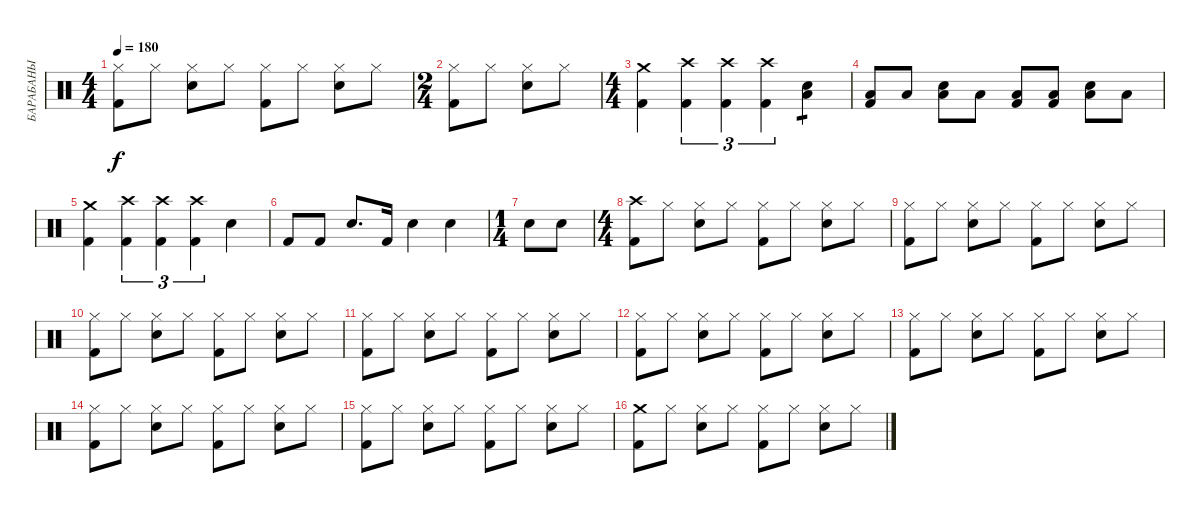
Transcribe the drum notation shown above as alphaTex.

\track ("БАРАБАНЫ" "БАРАБАНЫ") {instrument percussion}
\staff {score}
\articulation defaults
\ts (4 4)
\tempo 180
\clef neutral
\ks c
("Hi-Hat (closed)" "Kick (hit) 2").8{dy f} "Hi-Hat (closed)".8 ("Hi-Hat (closed)" "Electric Snare (hit)").8 "Hi-Hat (closed)".8 ("Hi-Hat (closed)" "Kick (hit) 2").8 "Hi-Hat (closed)".8 ("Hi-Hat (closed)" "Electric Snare (hit)").8 "Hi-Hat (closed)".8 |
\ts (2 4)
("Hi-Hat (closed)" "Kick (hit) 2").8 "Hi-Hat (closed)".8 ("Hi-Hat (closed)" "Electric Snare (hit)").8 "Hi-Hat (closed)".8 |
\ts (4 4)
("Kick (hit) 2" "Crash medium (hit)").4 ("Kick (hit) 2" "Crash high (hit)").4{tu (3 2)} ("Kick (hit) 2" "Crash high (hit)").4{tu (3 2)} ("Kick (hit) 2" "Crash high (hit)").4{tu (3 2)} ("Electric Snare (hit)" "Low Floor Tom (hit)").4{tp 1} |
("Kick (hit) 2" "Low Floor Tom (hit)").8 "Low Floor Tom (hit)".8 ("Electric Snare (hit)" "Low Floor Tom (hit)").8 "Low Floor Tom (hit)".8 ("Low Floor Tom (hit)" "Kick (hit) 2").8 ("Low Floor Tom (hit)" "Kick (hit) 2").8 ("Low Floor Tom (hit)" "Electric Snare (hit)").8 "Low Floor Tom (hit)".8 |
("Kick (hit) 2" "Crash medium (hit)").4 ("Kick (hit) 2" "Crash high (hit)").4{tu (3 2)} ("Kick (hit) 2" "Crash high (hit)").4{tu (3 2)} ("Kick (hit) 2" "Crash high (hit)").4{tu (3 2)} "Electric Snare (hit)".4 |
"Kick (hit) 2".8 "Kick (hit) 2".8 "Electric Snare (hit)".8{d} "Kick (hit) 2".16 "Electric Snare (hit)".4 "Electric Snare (hit)".4 |
\ts (1 4)
"Electric Snare (hit)".8 "Electric Snare (hit)".8 |
\ts (4 4)
("Crash high (hit)" "Kick (hit) 2").8 "Hi-Hat (closed)".8 ("Hi-Hat (closed)" "Electric Snare (hit)").8 "Hi-Hat (closed)".8 ("Hi-Hat (closed)" "Kick (hit) 2").8 "Hi-Hat (closed)".8 ("Hi-Hat (closed)" "Electric Snare (hit)").8 "Hi-Hat (closed)".8 |
("Hi-Hat (closed)" "Kick (hit) 2").8 "Hi-Hat (closed)".8 ("Hi-Hat (closed)" "Electric Snare (hit)").8 "Hi-Hat (closed)".8 ("Hi-Hat (closed)" "Kick (hit) 2").8 "Hi-Hat (closed)".8 ("Hi-Hat (closed)" "Electric Snare (hit)").8 "Hi-Hat (closed)".8 |
("Hi-Hat (closed)" "Kick (hit) 2").8 "Hi-Hat (closed)".8 ("Hi-Hat (closed)" "Electric Snare (hit)").8 "Hi-Hat (closed)".8 ("Hi-Hat (closed)" "Kick (hit) 2").8 "Hi-Hat (closed)".8 ("Hi-Hat (closed)" "Electric Snare (hit)").8 "Hi-Hat (closed)".8 |
("Hi-Hat (closed)" "Kick (hit) 2").8 "Hi-Hat (closed)".8 ("Hi-Hat (closed)" "Electric Snare (hit)").8 "Hi-Hat (closed)".8 ("Hi-Hat (closed)" "Kick (hit) 2").8 "Hi-Hat (closed)".8 ("Hi-Hat (closed)" "Electric Snare (hit)").8 "Hi-Hat (closed)".8 |
("Hi-Hat (closed)" "Kick (hit) 2").8 "Hi-Hat (closed)".8 ("Hi-Hat (closed)" "Electric Snare (hit)").8 "Hi-Hat (closed)".8 ("Hi-Hat (closed)" "Kick (hit) 2").8 "Hi-Hat (closed)".8 ("Hi-Hat (closed)" "Electric Snare (hit)").8 "Hi-Hat (closed)".8 |
("Hi-Hat (closed)" "Kick (hit) 2").8 "Hi-Hat (closed)".8 ("Hi-Hat (closed)" "Electric Snare (hit)").8 "Hi-Hat (closed)".8 ("Hi-Hat (closed)" "Kick (hit) 2").8 "Hi-Hat (closed)".8 ("Hi-Hat (closed)" "Electric Snare (hit)").8 "Hi-Hat (closed)".8 |
("Hi-Hat (closed)" "Kick (hit) 2").8 "Hi-Hat (closed)".8 ("Hi-Hat (closed)" "Electric Snare (hit)").8 "Hi-Hat (closed)".8 ("Hi-Hat (closed)" "Kick (hit) 2").8 "Hi-Hat (closed)".8 ("Hi-Hat (closed)" "Electric Snare (hit)").8 "Hi-Hat (closed)".8 |
("Hi-Hat (closed)" "Kick (hit) 2").8 "Hi-Hat (closed)".8 ("Hi-Hat (closed)" "Electric Snare (hit)").8 "Hi-Hat (closed)".8 ("Hi-Hat (closed)" "Kick (hit) 2").8 "Hi-Hat (closed)".8 ("Hi-Hat (closed)" "Electric Snare (hit)").8 "Hi-Hat (closed)".8 |
("Crash medium (hit)" "Kick (hit) 2").8 "Hi-Hat (closed)".8 ("Hi-Hat (closed)" "Electric Snare (hit)").8 "Hi-Hat (closed)".8 ("Hi-Hat (closed)" "Kick (hit) 2").8 "Hi-Hat (closed)".8 ("Hi-Hat (closed)" "Electric Snare (hit)").8 "Hi-Hat (closed)".8
